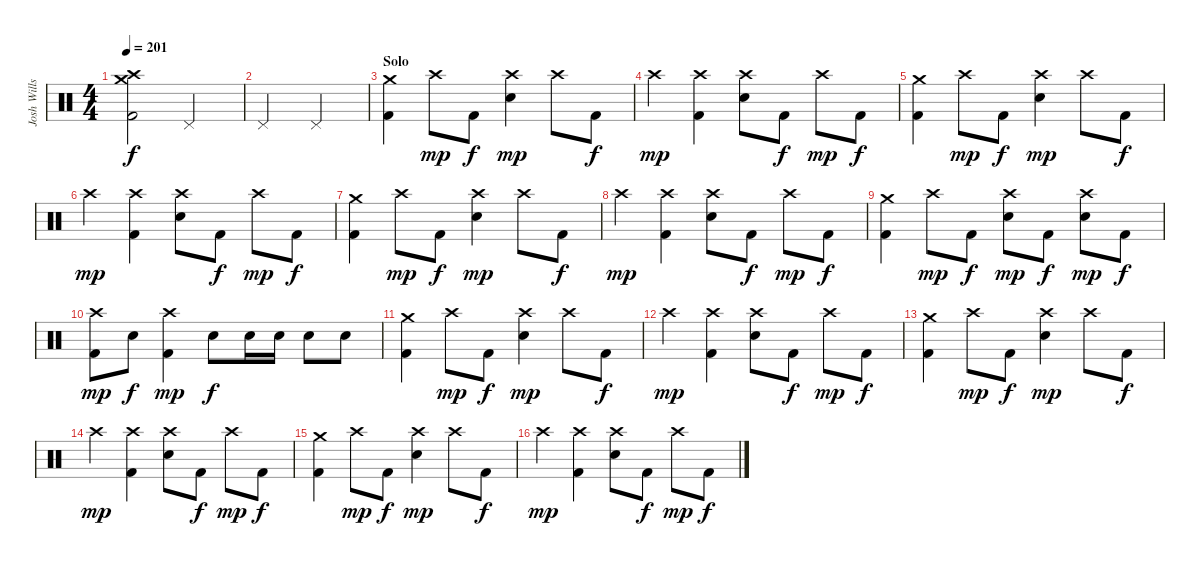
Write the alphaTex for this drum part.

\track ("Josh Wills" "Josh Wills") {instrument percussion}
\staff {score}
\articulation defaults
\ts (4 4)
\tempo 201
\clef neutral
\ks c
("Crash medium (hit)" "Crash high (hit)" "Kick (hit) 2").2{dy f} "Pedal Hi-Hat (hit)".2 |
"Pedal Hi-Hat (hit)".2 "Pedal Hi-Hat (hit)".2 |
\section ("" "Solo")
("Crash medium (hit)" "Kick (hit) 2").4 "Crash high (hit)".8{dy mp} "Kick (hit) 2".8{dy f} ("Crash high (hit)" "Snare (hit) 2").4{dy mp} "Crash high (hit)".8 "Kick (hit) 2".8{dy f} |
"Crash high (hit)".4{dy mp} ("Crash high (hit)" "Kick (hit) 2").4 ("Crash high (hit)" "Snare (hit) 2").8 "Kick (hit) 2".8{dy f} "Crash high (hit)".8{dy mp} "Kick (hit) 2".8{dy f} |
("Crash medium (hit)" "Kick (hit) 2").4 "Crash high (hit)".8{dy mp} "Kick (hit) 2".8{dy f} ("Crash high (hit)" "Snare (hit) 2").4{dy mp} "Crash high (hit)".8 "Kick (hit) 2".8{dy f} |
"Crash high (hit)".4{dy mp} ("Crash high (hit)" "Kick (hit) 2").4 ("Crash high (hit)" "Snare (hit) 2").8 "Kick (hit) 2".8{dy f} "Crash high (hit)".8{dy mp} "Kick (hit) 2".8{dy f} |
("Crash medium (hit)" "Kick (hit) 2").4 "Crash high (hit)".8{dy mp} "Kick (hit) 2".8{dy f} ("Crash high (hit)" "Snare (hit) 2").4{dy mp} "Crash high (hit)".8 "Kick (hit) 2".8{dy f} |
"Crash high (hit)".4{dy mp} ("Crash high (hit)" "Kick (hit) 2").4 ("Crash high (hit)" "Snare (hit) 2").8 "Kick (hit) 2".8{dy f} "Crash high (hit)".8{dy mp} "Kick (hit) 2".8{dy f} |
("Crash medium (hit)" "Kick (hit) 2").4 "Crash high (hit)".8{dy mp} "Kick (hit) 2".8{dy f} ("Crash high (hit)" "Snare (hit) 2").8{dy mp} "Kick (hit) 2".8{dy f} ("Crash high (hit)" "Snare (hit) 2").8{dy mp} "Kick (hit) 2".8{dy f} |
("Crash high (hit)" "Kick (hit) 2").8{dy mp} "Snare (hit) 2".8{dy f} ("Crash high (hit)" "Kick (hit) 2").4{dy mp} "Snare (hit) 2".8{dy f} "Snare (hit) 2".16 "Snare (hit) 2".16 "Snare (hit) 2".8 "Snare (hit) 2".8 |
("Crash medium (hit)" "Kick (hit) 2").4 "Crash high (hit)".8{dy mp} "Kick (hit) 2".8{dy f} ("Crash high (hit)" "Snare (hit) 2").4{dy mp} "Crash high (hit)".8 "Kick (hit) 2".8{dy f} |
"Crash high (hit)".4{dy mp} ("Crash high (hit)" "Kick (hit) 2").4 ("Crash high (hit)" "Snare (hit) 2").8 "Kick (hit) 2".8{dy f} "Crash high (hit)".8{dy mp} "Kick (hit) 2".8{dy f} |
("Crash medium (hit)" "Kick (hit) 2").4 "Crash high (hit)".8{dy mp} "Kick (hit) 2".8{dy f} ("Crash high (hit)" "Snare (hit) 2").4{dy mp} "Crash high (hit)".8 "Kick (hit) 2".8{dy f} |
"Crash high (hit)".4{dy mp} ("Crash high (hit)" "Kick (hit) 2").4 ("Crash high (hit)" "Snare (hit) 2").8 "Kick (hit) 2".8{dy f} "Crash high (hit)".8{dy mp} "Kick (hit) 2".8{dy f} |
("Crash medium (hit)" "Kick (hit) 2").4 "Crash high (hit)".8{dy mp} "Kick (hit) 2".8{dy f} ("Crash high (hit)" "Snare (hit) 2").4{dy mp} "Crash high (hit)".8 "Kick (hit) 2".8{dy f} |
"Crash high (hit)".4{dy mp} ("Crash high (hit)" "Kick (hit) 2").4 ("Crash high (hit)" "Snare (hit) 2").8 "Kick (hit) 2".8{dy f} "Crash high (hit)".8{dy mp} "Kick (hit) 2".8{dy f}
